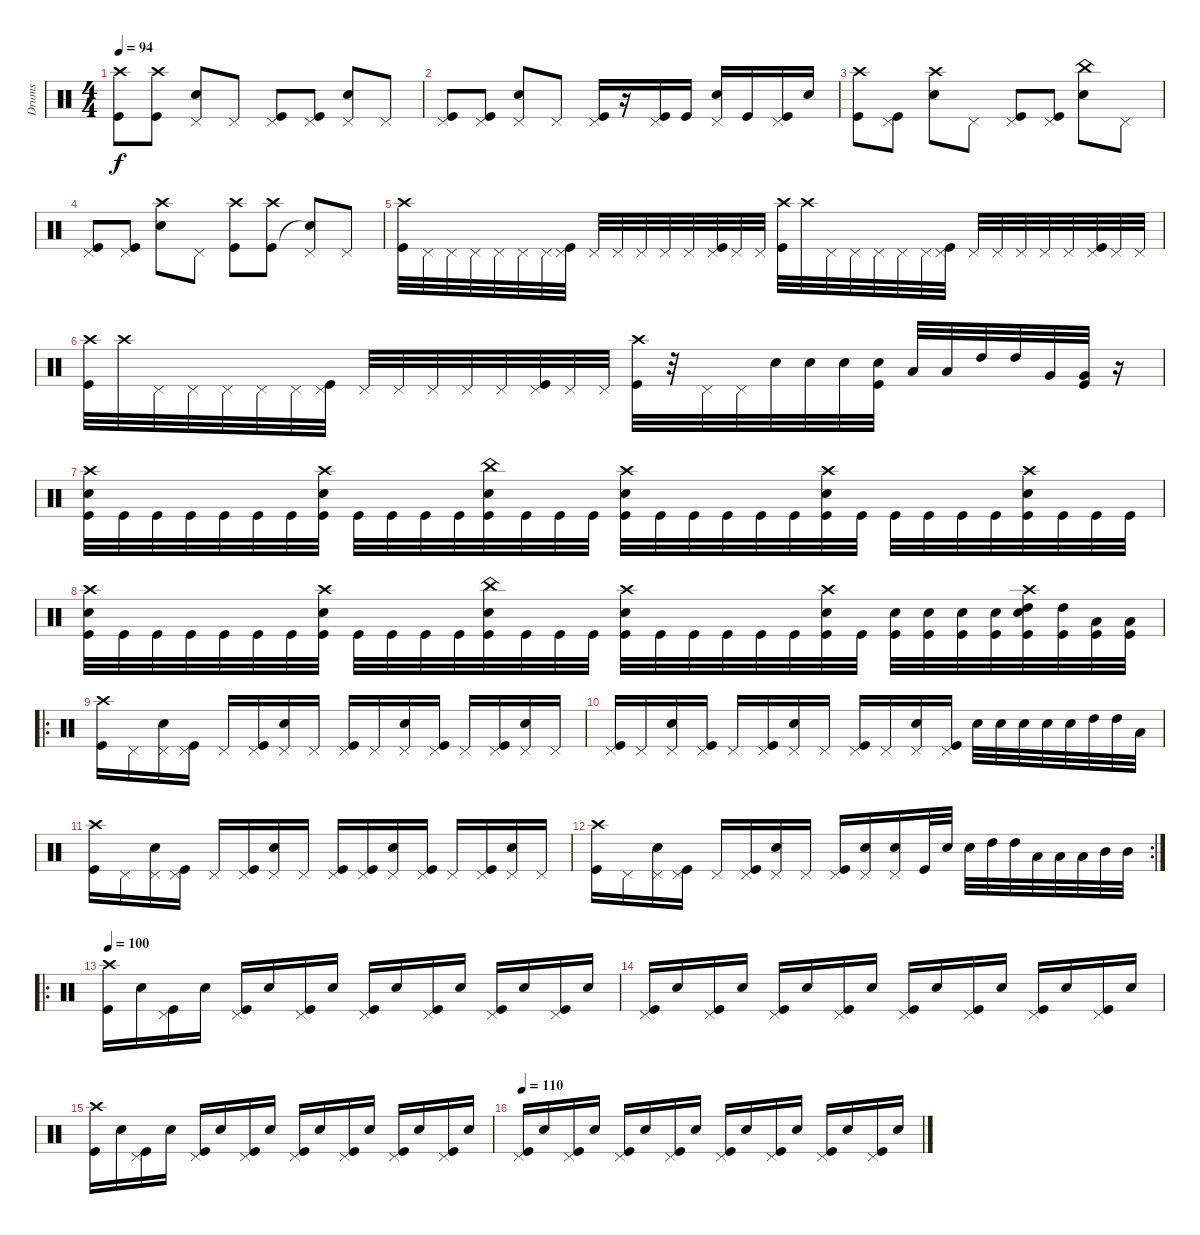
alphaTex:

\track ("Drums" "Drums") {instrument percussion}
\staff {score}
\articulation defaults
\ts (4 4)
\tempo 94
\clef neutral
\ks c
("Crash high (hit)" "Kick (hit)").8{dy f} ("Crash high (hit)" "Kick (hit)").8 ("Pedal Hi-Hat (hit)" "Electric Snare (hit)").8 "Pedal Hi-Hat (hit)".8 ("Pedal Hi-Hat (hit)" "Kick (hit)").8 ("Pedal Hi-Hat (hit)" "Kick (hit)").8 ("Pedal Hi-Hat (hit)" "Electric Snare (hit)").8 "Pedal Hi-Hat (hit)".8 |
("Pedal Hi-Hat (hit)" "Kick (hit)").8 ("Pedal Hi-Hat (hit)" "Kick (hit)").8 ("Pedal Hi-Hat (hit)" "Electric Snare (hit)").8 "Pedal Hi-Hat (hit)".8 ("Pedal Hi-Hat (hit)" "Kick (hit)").16 r.16 ("Pedal Hi-Hat (hit)" "Kick (hit)").16 "Kick (hit)".16 ("Pedal Hi-Hat (hit)" "Electric Snare (hit)").16 "Kick (hit)".16 ("Pedal Hi-Hat (hit)" "Kick (hit)").16 "Electric Snare (hit)".16 |
("Crash high (hit)" "Kick (hit)").8 ("Pedal Hi-Hat (hit)" "Kick (hit)").8 ("Crash high (hit)" "Electric Snare (hit)").8 "Pedal Hi-Hat (hit)".8 ("Pedal Hi-Hat (hit)" "Kick (hit)").8 ("Pedal Hi-Hat (hit)" "Kick (hit)").8 ("China (hit)" "Electric Snare (hit)").8 "Pedal Hi-Hat (hit)".8 |
("Pedal Hi-Hat (hit)" "Kick (hit)").8 ("Pedal Hi-Hat (hit)" "Kick (hit)").8 ("Crash high (hit)" "Electric Snare (hit)").8 "Pedal Hi-Hat (hit)".8 ("Crash high (hit)" "Kick (hit)").8 ("Crash high (hit)" "Kick (hit)").8 ("Pedal Hi-Hat (hit)" "Snare (hit)"{t}).8 "Pedal Hi-Hat (hit)".8 |
("Crash high (hit)" "Kick (hit)").32 "Pedal Hi-Hat (hit)".32 "Pedal Hi-Hat (hit)".32 "Pedal Hi-Hat (hit)".32 "Pedal Hi-Hat (hit)".32 "Pedal Hi-Hat (hit)".32 "Pedal Hi-Hat (hit)".32 ("Pedal Hi-Hat (hit)" "Kick (hit)").32 "Pedal Hi-Hat (hit)".32 "Pedal Hi-Hat (hit)".32 "Pedal Hi-Hat (hit)".32 "Pedal Hi-Hat (hit)".32 "Pedal Hi-Hat (hit)".32 ("Pedal Hi-Hat (hit)" "Kick (hit)").32 "Pedal Hi-Hat (hit)".32 "Pedal Hi-Hat (hit)".32 ("Crash high (hit)" "Kick (hit)").32 "Crash high (hit)".32 "Pedal Hi-Hat (hit)".32 "Pedal Hi-Hat (hit)".32 "Pedal Hi-Hat (hit)".32 "Pedal Hi-Hat (hit)".32 "Pedal Hi-Hat (hit)".32 ("Pedal Hi-Hat (hit)" "Kick (hit)").32 "Pedal Hi-Hat (hit)".32 "Pedal Hi-Hat (hit)".32 "Pedal Hi-Hat (hit)".32 "Pedal Hi-Hat (hit)".32 "Pedal Hi-Hat (hit)".32 ("Pedal Hi-Hat (hit)" "Kick (hit)").32 "Pedal Hi-Hat (hit)".32 "Pedal Hi-Hat (hit)".32 |
("Crash high (hit)" "Kick (hit)").32 "Crash high (hit)".32 "Pedal Hi-Hat (hit)".32 "Pedal Hi-Hat (hit)".32 "Pedal Hi-Hat (hit)".32 "Pedal Hi-Hat (hit)".32 "Pedal Hi-Hat (hit)".32 ("Pedal Hi-Hat (hit)" "Kick (hit)").32 "Pedal Hi-Hat (hit)".32 "Pedal Hi-Hat (hit)".32 "Pedal Hi-Hat (hit)".32 "Pedal Hi-Hat (hit)".32 "Pedal Hi-Hat (hit)".32 ("Pedal Hi-Hat (hit)" "Kick (hit)").32 "Pedal Hi-Hat (hit)".32 "Pedal Hi-Hat (hit)".32 ("Crash high (hit)" "Kick (hit)").32 r.32 "Pedal Hi-Hat (hit)".32 "Pedal Hi-Hat (hit)".32 "Snare (hit) 2".32 "Snare (hit) 2".32 "Snare (hit) 2".32 ("Snare (hit) 2" "Kick (hit)").32 "Low Tom (hit)".32 "Low Tom (hit)".32 "High Tom (hit)".32 "High Tom (hit)".32 "Very Low Tom (hit)".32 ("Very Low Tom (hit)" "Kick (hit)").32 r.16 |
("Crash high (hit)" "Electric Snare (hit)" "Kick (hit)").32 "Kick (hit)".32 "Kick (hit)".32 "Kick (hit)".32 "Kick (hit)".32 "Kick (hit)".32 "Kick (hit)".32 ("Crash high (hit)" "Electric Snare (hit)" "Kick (hit)").32 "Kick (hit)".32 "Kick (hit)".32 "Kick (hit)".32 "Kick (hit)".32 ("China (hit)" "Electric Snare (hit)" "Kick (hit)").32 "Kick (hit)".32 "Kick (hit)".32 "Kick (hit)".32 ("Crash high (hit)" "Electric Snare (hit)" "Kick (hit)").32 "Kick (hit)".32 "Kick (hit)".32 "Kick (hit)".32 "Kick (hit)".32 "Kick (hit)".32 ("Crash high (hit)" "Electric Snare (hit)" "Kick (hit)").32 "Kick (hit)".32 "Kick (hit)".32 "Kick (hit)".32 "Kick (hit)".32 "Kick (hit)".32 ("Crash high (hit)" "Electric Snare (hit)" "Kick (hit)").32 "Kick (hit)".32 "Kick (hit)".32 "Kick (hit)".32 |
("Crash high (hit)" "Electric Snare (hit)" "Kick (hit)").32 "Kick (hit)".32 "Kick (hit)".32 "Kick (hit)".32 "Kick (hit)".32 "Kick (hit)".32 "Kick (hit)".32 ("Crash high (hit)" "Electric Snare (hit)" "Kick (hit)").32 "Kick (hit)".32 "Kick (hit)".32 "Kick (hit)".32 "Kick (hit)".32 ("China (hit)" "Electric Snare (hit)" "Kick (hit)").32 "Kick (hit)".32 "Kick (hit)".32 "Kick (hit)".32 ("Crash high (hit)" "Electric Snare (hit)" "Kick (hit)").32 "Kick (hit)".32 "Kick (hit)".32 "Kick (hit)".32 "Kick (hit)".32 "Kick (hit)".32 ("Crash high (hit)" "Electric Snare (hit)" "Kick (hit)").32 "Kick (hit)".32 ("Electric Snare (hit)" "Kick (hit)").32 ("Electric Snare (hit)" "Kick (hit)").32 ("Electric Snare (hit)" "Kick (hit)").32 ("Electric Snare (hit)" "Kick (hit)").32 ("Crash high (hit)" "High Tom (hit)" "Electric Snare (hit)" "Kick (hit)").32 ("High Tom (hit)" "Kick (hit)").32 ("Low Tom (hit)" "Kick (hit)").32 ("Low Tom (hit)" "Kick (hit)").32 |
\ro
("Crash high (hit)" "Kick (hit)").16 "Pedal Hi-Hat (hit)".16 ("Pedal Hi-Hat (hit)" "Electric Snare (hit)").16 ("Pedal Hi-Hat (hit)" "Kick (hit)").16 "Pedal Hi-Hat (hit)".16 ("Pedal Hi-Hat (hit)" "Kick (hit)").16 ("Pedal Hi-Hat (hit)" "Electric Snare (hit)").16 "Pedal Hi-Hat (hit)".16 ("Pedal Hi-Hat (hit)" "Kick (hit)").16 "Pedal Hi-Hat (hit)".16 ("Pedal Hi-Hat (hit)" "Electric Snare (hit)").16 ("Pedal Hi-Hat (hit)" "Kick (hit)").16 "Pedal Hi-Hat (hit)".16 ("Pedal Hi-Hat (hit)" "Kick (hit)").16 ("Pedal Hi-Hat (hit)" "Electric Snare (hit)").16 "Pedal Hi-Hat (hit)".16 |
("Pedal Hi-Hat (hit)" "Kick (hit)").16 "Pedal Hi-Hat (hit)".16 ("Pedal Hi-Hat (hit)" "Electric Snare (hit)").16 ("Pedal Hi-Hat (hit)" "Kick (hit)").16 "Pedal Hi-Hat (hit)".16 ("Pedal Hi-Hat (hit)" "Kick (hit)").16 ("Pedal Hi-Hat (hit)" "Electric Snare (hit)").16 "Pedal Hi-Hat (hit)".16 ("Pedal Hi-Hat (hit)" "Kick (hit)").16 "Pedal Hi-Hat (hit)".16 ("Pedal Hi-Hat (hit)" "Electric Snare (hit)").16 ("Pedal Hi-Hat (hit)" "Kick (hit)").16 "Electric Snare (hit)".32 "Electric Snare (hit)".32 "Electric Snare (hit)".32 "Electric Snare (hit)".32 "Electric Snare (hit)".32 "High Tom (hit)".32 "High Tom (hit)".32 "Low Tom (hit)".32 |
("Crash high (hit)" "Kick (hit)").16 "Pedal Hi-Hat (hit)".16 ("Pedal Hi-Hat (hit)" "Electric Snare (hit)").16 ("Pedal Hi-Hat (hit)" "Kick (hit)").16 "Pedal Hi-Hat (hit)".16 ("Pedal Hi-Hat (hit)" "Kick (hit)").16 ("Pedal Hi-Hat (hit)" "Electric Snare (hit)").16 "Pedal Hi-Hat (hit)".16 ("Pedal Hi-Hat (hit)" "Kick (hit)").16 ("Pedal Hi-Hat (hit)" "Kick (hit)").16 ("Pedal Hi-Hat (hit)" "Electric Snare (hit)").16 ("Pedal Hi-Hat (hit)" "Kick (hit)").16 "Pedal Hi-Hat (hit)".16 ("Pedal Hi-Hat (hit)" "Kick (hit)").16 ("Pedal Hi-Hat (hit)" "Electric Snare (hit)").16 "Pedal Hi-Hat (hit)".16 |
\rc 2
("Crash high (hit)" "Kick (hit)").16 "Pedal Hi-Hat (hit)".16 ("Pedal Hi-Hat (hit)" "Electric Snare (hit)").16 ("Pedal Hi-Hat (hit)" "Kick (hit)").16 "Pedal Hi-Hat (hit)".16 ("Pedal Hi-Hat (hit)" "Kick (hit)").16 ("Pedal Hi-Hat (hit)" "Electric Snare (hit)").16 "Pedal Hi-Hat (hit)".16 ("Pedal Hi-Hat (hit)" "Kick (hit)").16 ("Pedal Hi-Hat (hit)" "Electric Snare (hit)").16 ("Pedal Hi-Hat (hit)" "Electric Snare (hit)").16 "Kick (hit)".32 "Electric Snare (hit)".32 "Electric Snare (hit)".32 "High Tom (hit)".32 "High Tom (hit)".32 "Low Tom (hit)".32 "Low Tom (hit)".32 "Low Tom (hit)".32 "Mid Tom (hit)".32 "Mid Tom (hit)".32 |
\ro
\tempo 100
("Crash high (hit)" "Kick (hit)").16 "Electric Snare (hit)".16 ("Pedal Hi-Hat (hit)" "Kick (hit)").16 "Electric Snare (hit)".16 ("Pedal Hi-Hat (hit)" "Kick (hit)").16 "Electric Snare (hit)".16 ("Pedal Hi-Hat (hit)" "Kick (hit)").16 "Electric Snare (hit)".16 ("Pedal Hi-Hat (hit)" "Kick (hit)").16 "Electric Snare (hit)".16 ("Pedal Hi-Hat (hit)" "Kick (hit)").16 "Electric Snare (hit)".16 ("Pedal Hi-Hat (hit)" "Kick (hit)").16 "Electric Snare (hit)".16 ("Pedal Hi-Hat (hit)" "Kick (hit)").16 "Electric Snare (hit)".16 |
("Pedal Hi-Hat (hit)" "Kick (hit)").16 "Electric Snare (hit)".16 ("Pedal Hi-Hat (hit)" "Kick (hit)").16 "Electric Snare (hit)".16 ("Pedal Hi-Hat (hit)" "Kick (hit)").16 "Electric Snare (hit)".16 ("Pedal Hi-Hat (hit)" "Kick (hit)").16 "Electric Snare (hit)".16 ("Pedal Hi-Hat (hit)" "Kick (hit)").16 "Electric Snare (hit)".16 ("Pedal Hi-Hat (hit)" "Kick (hit)").16 "Electric Snare (hit)".16 ("Pedal Hi-Hat (hit)" "Kick (hit)").16 "Electric Snare (hit)".16 ("Pedal Hi-Hat (hit)" "Kick (hit)").16 "Electric Snare (hit)".16 |
("Crash high (hit)" "Kick (hit)").16 "Electric Snare (hit)".16 ("Pedal Hi-Hat (hit)" "Kick (hit)").16 "Electric Snare (hit)".16 ("Pedal Hi-Hat (hit)" "Kick (hit)").16 "Electric Snare (hit)".16 ("Pedal Hi-Hat (hit)" "Kick (hit)").16 "Electric Snare (hit)".16 ("Pedal Hi-Hat (hit)" "Kick (hit)").16 "Electric Snare (hit)".16 ("Pedal Hi-Hat (hit)" "Kick (hit)").16 "Electric Snare (hit)".16 ("Pedal Hi-Hat (hit)" "Kick (hit)").16 "Electric Snare (hit)".16 ("Pedal Hi-Hat (hit)" "Kick (hit)").16 "Electric Snare (hit)".16 |
\tempo 110
("Pedal Hi-Hat (hit)" "Kick (hit)").16 "Electric Snare (hit)".16 ("Pedal Hi-Hat (hit)" "Kick (hit)").16 "Electric Snare (hit)".16 ("Pedal Hi-Hat (hit)" "Kick (hit)").16 "Electric Snare (hit)".16 ("Pedal Hi-Hat (hit)" "Kick (hit)").16 "Electric Snare (hit)".16 ("Pedal Hi-Hat (hit)" "Kick (hit)").16 "Electric Snare (hit)".16 ("Pedal Hi-Hat (hit)" "Kick (hit)").16 "Electric Snare (hit)".16 ("Pedal Hi-Hat (hit)" "Kick (hit)").16 "Electric Snare (hit)".16 ("Pedal Hi-Hat (hit)" "Kick (hit)").16 "Electric Snare (hit)".16
